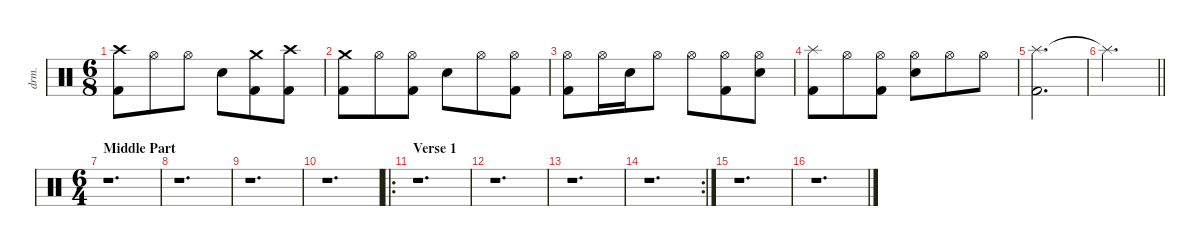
\defaultSystemsLayout 4
\hideDynamics
\bracketExtendMode nobrackets
\otherSystemsTrackNameOrientation horizontal
\track ("Drums" "drm.") {defaultSystemsLayout 4 instrument percussion}
\staff {score}
\articulation defaults
\ts (6 8)
\tempo (91.5 hide)
\clef neutral
\ks aminor
("Crash high (hit)" "Kick (hit) 2").8{dy fff beam Down} "Hi-Hat (open)".8{dy mf beam Down} "Hi-Hat (open)".8{dy f beam Down} "Snare (hit) 2".8{dy ff beam Down} ("Crash medium (hit)" "Kick (hit) 2").8{dy mf beam Down} ("Crash high (hit)" "Kick (hit) 2").8{dy fff beam Down} |
("Crash medium (hit)" "Kick (hit) 2").8{beam Down} "Hi-Hat (open)".8{dy f beam Down} ("Hi-Hat (open)" "Kick (hit) 2").8{dy mf beam Down} "Snare (hit) 2".8{dy ff beam Down} "Hi-Hat (open)".8{beam Down} ("Hi-Hat (open)" "Kick (hit) 2").8{beam Down} |
\tempo (93 hide)
("Hi-Hat (open)" "Kick (hit) 2").8{beam Down} "Hi-Hat (open)".16{beam Down} "Snare (hit) 2".16{beam Down} "Hi-Hat (open)".8{beam Down} "Hi-Hat (open)".8{beam Down} ("Hi-Hat (open)" "Kick (hit) 2").8{beam Down} ("Hi-Hat (open)" "Snare (hit) 2").8{beam Down} |
\tempo (91.5 hide)
("Splash (hit)" "Kick (hit) 2").8{dy fff beam Down} "Hi-Hat (open)".8{dy ff beam Down} ("Hi-Hat (open)" "Kick (hit) 2").8{beam Down} ("Hi-Hat (open)" "Snare (hit) 2").8{beam Down} "Hi-Hat (open)".8{beam Down} "Hi-Hat (open)".8{beam Down} |
\tempo (93 hide)
("Splash (hit)" "Kick (hit) 2").2{d dy fff beam Down} |
\barLineRight lightlight "Splash (hit)"{t}.2{d dy f beam Down}
|
\ts (6 4)
\beaming (8 6 6)
\section ("" "Middle Part")
\tempo (93 hide)
r.1{d beam Down} |
\tempo (91.5 0.00625 hide)
r.1{d beam Down} |
\tempo (93 hide)
r.1{d beam Down} |
\tempo (91.5 hide)
r.1{d beam Down} |
\ro
\section ("" "Verse 1")
\tempo (93 hide)
r.1{d beam Down} |
r.1{d beam Down} |
\tempo (93 hide)
r.1{d beam Down} |
\rc 2
\tempo (91.5 hide)
r.1{d beam Down} |
\tempo (93 hide)
r.1{d beam Down} |
\tempo (91.5 hide)
r.1{d beam Down}
